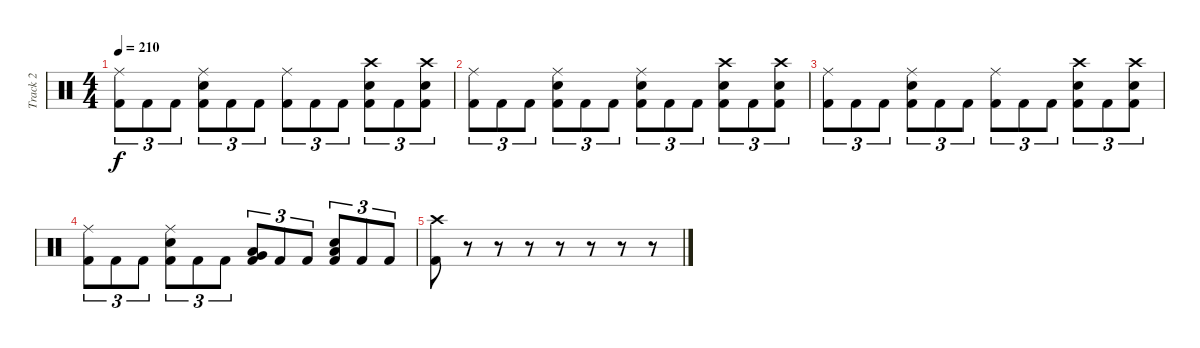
\track ("Track 2" "Track 2") {instrument percussion}
\staff {score}
\articulation defaults
\ts (4 4)
\tempo 210
\clef neutral
\ks c
("Ride (middle)" "Kick (hit) 2").8{tu (3 2) dy f} "Kick (hit) 2".8{tu (3 2)} "Kick (hit) 2".8{tu (3 2)} ("Ride (middle)" "Snare (hit) 2" "Kick (hit) 2").8{tu (3 2)} "Kick (hit) 2".8{tu (3 2)} "Kick (hit) 2".8{tu (3 2)} ("Ride (middle)" "Kick (hit) 2").8{tu (3 2)} "Kick (hit) 2".8{tu (3 2)} "Kick (hit) 2".8{tu (3 2)} ("Crash high (hit)" "Snare (hit) 2" "Kick (hit) 2").8{tu (3 2)} "Kick (hit) 2".8{tu (3 2)} ("Crash high (hit)" "Snare (hit) 2" "Kick (hit) 2").8{tu (3 2)} |
("Ride (middle)" "Kick (hit) 2").8{tu (3 2)} "Kick (hit) 2".8{tu (3 2)} "Kick (hit) 2".8{tu (3 2)} ("Ride (middle)" "Snare (hit) 2" "Kick (hit) 2").8{tu (3 2)} "Kick (hit) 2".8{tu (3 2)} "Kick (hit) 2".8{tu (3 2)} ("Ride (middle)" "Snare (hit) 2" "Kick (hit) 2").8{tu (3 2)} "Kick (hit) 2".8{tu (3 2)} "Kick (hit) 2".8{tu (3 2)} ("Crash high (hit)" "Snare (hit) 2" "Kick (hit) 2").8{tu (3 2)} "Kick (hit) 2".8{tu (3 2)} ("Crash high (hit)" "Snare (hit) 2" "Kick (hit) 2").8{tu (3 2)} |
("Ride (middle)" "Kick (hit) 2").8{tu (3 2)} "Kick (hit) 2".8{tu (3 2)} "Kick (hit) 2".8{tu (3 2)} ("Ride (middle)" "Snare (hit) 2" "Kick (hit) 2").8{tu (3 2)} "Kick (hit) 2".8{tu (3 2)} "Kick (hit) 2".8{tu (3 2)} ("Ride (middle)" "Kick (hit) 2").8{tu (3 2)} "Kick (hit) 2".8{tu (3 2)} "Kick (hit) 2".8{tu (3 2)} ("Crash high (hit)" "Snare (hit) 2" "Kick (hit) 2").8{tu (3 2)} "Kick (hit) 2".8{tu (3 2)} ("Crash high (hit)" "Snare (hit) 2" "Kick (hit) 2").8{tu (3 2)} |
("Ride (middle)" "Kick (hit) 2").8{tu (3 2)} "Kick (hit) 2".8{tu (3 2)} "Kick (hit) 2".8{tu (3 2)} ("Ride (middle)" "Snare (hit) 2" "Kick (hit) 2").8{tu (3 2)} "Kick (hit) 2".8{tu (3 2)} "Kick (hit) 2".8{tu (3 2)} ("Low Tom (hit)" "Very Low Tom (hit)" "Kick (hit) 2").8{tu (3 2)} "Kick (hit) 2".8{tu (3 2)} "Kick (hit) 2".8{tu (3 2)} ("Low Tom (hit)" "Snare (hit) 2" "Kick (hit) 2").8{tu (3 2)} "Kick (hit) 2".8{tu (3 2)} "Kick (hit) 2".8{tu (3 2)} |
("Crash high (hit)" "Kick (hit) 2").8 r.8 r.8 r.8 r.8 r.8 r.8 r.8
